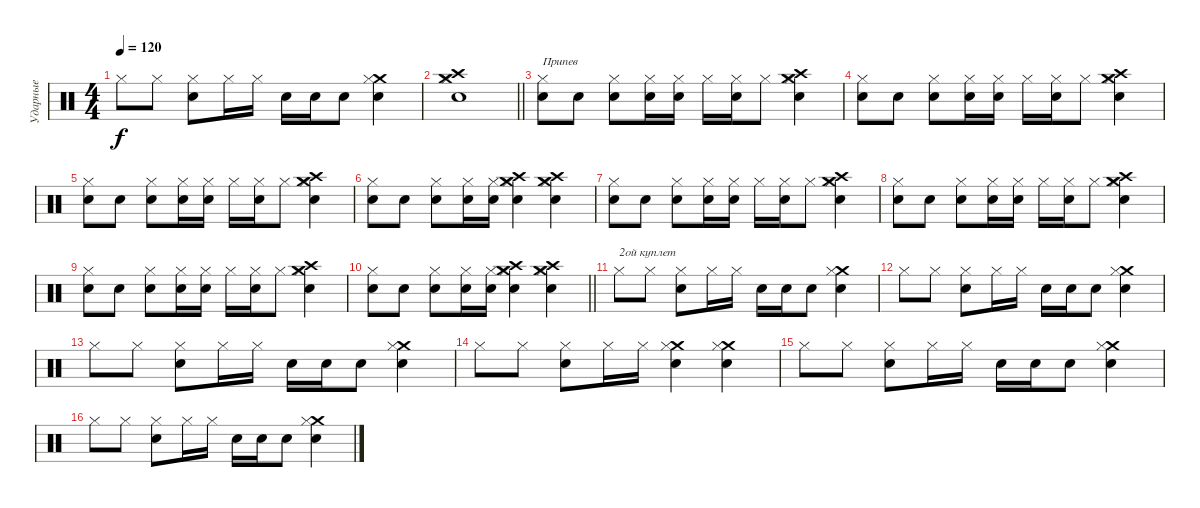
\track ("Ударные" "Ударные") {instrument percussion}
\staff {score}
\articulation defaults
\ts (4 4)
\tempo 120
\clef neutral
\ks c "Hi-Hat (closed)".8{dy f} "Hi-Hat (closed)".8
("Hi-Hat (closed)" "Electric Snare (hit)").8 "Hi-Hat (closed)".16 "Hi-Hat (closed)".16 "Electric Snare (hit)".16 "Electric Snare (hit)".16 "Electric Snare (hit)".8 ("Crash medium (hit)" "Electric Snare (hit)" "Hi-Hat (closed)").4 |
\barLineRight lightlight
("Crash high (hit)" "Crash medium (hit)" "Electric Snare (hit)" "Hi-Hat (closed)").1 |
("Hi-Hat (closed)" "Electric Snare (hit)").8{txt "Припев"} "Electric Snare (hit)".8 ("Hi-Hat (closed)" "Electric Snare (hit)").8 ("Hi-Hat (closed)" "Electric Snare (hit)").16 ("Hi-Hat (closed)" "Electric Snare (hit)").16 "Hi-Hat (closed)".16 ("Hi-Hat (closed)" "Electric Snare (hit)").16 "Hi-Hat (closed)".8 ("Crash high (hit)" "Crash medium (hit)" "Electric Snare (hit)" "Hi-Hat (closed)").4 |
("Hi-Hat (closed)" "Electric Snare (hit)").8 "Electric Snare (hit)".8 ("Hi-Hat (closed)" "Electric Snare (hit)").8 ("Hi-Hat (closed)" "Electric Snare (hit)").16 ("Hi-Hat (closed)" "Electric Snare (hit)").16 "Hi-Hat (closed)".16 ("Hi-Hat (closed)" "Electric Snare (hit)").16 "Hi-Hat (closed)".8 ("Crash high (hit)" "Crash medium (hit)" "Electric Snare (hit)" "Hi-Hat (closed)").4 |
("Hi-Hat (closed)" "Electric Snare (hit)").8 "Electric Snare (hit)".8 ("Hi-Hat (closed)" "Electric Snare (hit)").8 ("Hi-Hat (closed)" "Electric Snare (hit)").16 ("Hi-Hat (closed)" "Electric Snare (hit)").16 "Hi-Hat (closed)".16 ("Hi-Hat (closed)" "Electric Snare (hit)").16 "Hi-Hat (closed)".8 ("Crash high (hit)" "Crash medium (hit)" "Electric Snare (hit)" "Hi-Hat (closed)").4 |
("Hi-Hat (closed)" "Electric Snare (hit)").8 "Electric Snare (hit)".8 ("Hi-Hat (closed)" "Electric Snare (hit)").8 ("Hi-Hat (closed)" "Electric Snare (hit)").16 ("Hi-Hat (closed)" "Electric Snare (hit)").16 ("Crash high (hit)" "Crash medium (hit)" "Electric Snare (hit)" "Hi-Hat (closed)").4 ("Crash high (hit)" "Crash medium (hit)" "Electric Snare (hit)" "Hi-Hat (closed)").4 |
("Hi-Hat (closed)" "Electric Snare (hit)").8 "Electric Snare (hit)".8 ("Hi-Hat (closed)" "Electric Snare (hit)").8 ("Hi-Hat (closed)" "Electric Snare (hit)").16 ("Hi-Hat (closed)" "Electric Snare (hit)").16 "Hi-Hat (closed)".16 ("Hi-Hat (closed)" "Electric Snare (hit)").16 "Hi-Hat (closed)".8 ("Crash high (hit)" "Crash medium (hit)" "Electric Snare (hit)" "Hi-Hat (closed)").4 |
("Hi-Hat (closed)" "Electric Snare (hit)").8 "Electric Snare (hit)".8 ("Hi-Hat (closed)" "Electric Snare (hit)").8 ("Hi-Hat (closed)" "Electric Snare (hit)").16 ("Hi-Hat (closed)" "Electric Snare (hit)").16 "Hi-Hat (closed)".16 ("Hi-Hat (closed)" "Electric Snare (hit)").16 "Hi-Hat (closed)".8 ("Crash high (hit)" "Crash medium (hit)" "Electric Snare (hit)" "Hi-Hat (closed)").4 |
("Hi-Hat (closed)" "Electric Snare (hit)").8 "Electric Snare (hit)".8 ("Hi-Hat (closed)" "Electric Snare (hit)").8 ("Hi-Hat (closed)" "Electric Snare (hit)").16 ("Hi-Hat (closed)" "Electric Snare (hit)").16 "Hi-Hat (closed)".16 ("Hi-Hat (closed)" "Electric Snare (hit)").16 "Hi-Hat (closed)".8 ("Crash high (hit)" "Crash medium (hit)" "Electric Snare (hit)" "Hi-Hat (closed)").4 |
\barLineRight lightlight
("Hi-Hat (closed)" "Electric Snare (hit)").8 "Electric Snare (hit)".8 ("Hi-Hat (closed)" "Electric Snare (hit)").8 ("Hi-Hat (closed)" "Electric Snare (hit)").16 ("Hi-Hat (closed)" "Electric Snare (hit)").16 ("Crash high (hit)" "Crash medium (hit)" "Electric Snare (hit)" "Hi-Hat (closed)").4 ("Crash high (hit)" "Crash medium (hit)" "Electric Snare (hit)" "Hi-Hat (closed)").4 |
"Hi-Hat (closed)".8{txt "2ой куплет"} "Hi-Hat (closed)".8 ("Hi-Hat (closed)" "Electric Snare (hit)").8 "Hi-Hat (closed)".16 "Hi-Hat (closed)".16 "Electric Snare (hit)".16 "Electric Snare (hit)".16 "Electric Snare (hit)".8 ("Crash medium (hit)" "Electric Snare (hit)" "Hi-Hat (closed)").4 |
"Hi-Hat (closed)".8 "Hi-Hat (closed)".8 ("Hi-Hat (closed)" "Electric Snare (hit)").8 "Hi-Hat (closed)".16 "Hi-Hat (closed)".16 "Electric Snare (hit)".16 "Electric Snare (hit)".16 "Electric Snare (hit)".8 ("Crash medium (hit)" "Electric Snare (hit)" "Hi-Hat (closed)").4 |
"Hi-Hat (closed)".8 "Hi-Hat (closed)".8 ("Hi-Hat (closed)" "Electric Snare (hit)").8 "Hi-Hat (closed)".16 "Hi-Hat (closed)".16 "Electric Snare (hit)".16 "Electric Snare (hit)".16 "Electric Snare (hit)".8 ("Crash medium (hit)" "Electric Snare (hit)" "Hi-Hat (closed)").4 |
"Hi-Hat (closed)".8 "Hi-Hat (closed)".8 ("Hi-Hat (closed)" "Electric Snare (hit)").8 "Hi-Hat (closed)".16 "Hi-Hat (closed)".16 ("Crash medium (hit)" "Electric Snare (hit)" "Hi-Hat (closed)").4 ("Crash medium (hit)" "Electric Snare (hit)" "Hi-Hat (closed)").4 |
"Hi-Hat (closed)".8 "Hi-Hat (closed)".8 ("Hi-Hat (closed)" "Electric Snare (hit)").8 "Hi-Hat (closed)".16 "Hi-Hat (closed)".16 "Electric Snare (hit)".16 "Electric Snare (hit)".16 "Electric Snare (hit)".8 ("Crash medium (hit)" "Electric Snare (hit)" "Hi-Hat (closed)").4 |
"Hi-Hat (closed)".8 "Hi-Hat (closed)".8 ("Hi-Hat (closed)" "Electric Snare (hit)").8 "Hi-Hat (closed)".16 "Hi-Hat (closed)".16 "Electric Snare (hit)".16 "Electric Snare (hit)".16 "Electric Snare (hit)".8 ("Crash medium (hit)" "Electric Snare (hit)" "Hi-Hat (closed)").4
